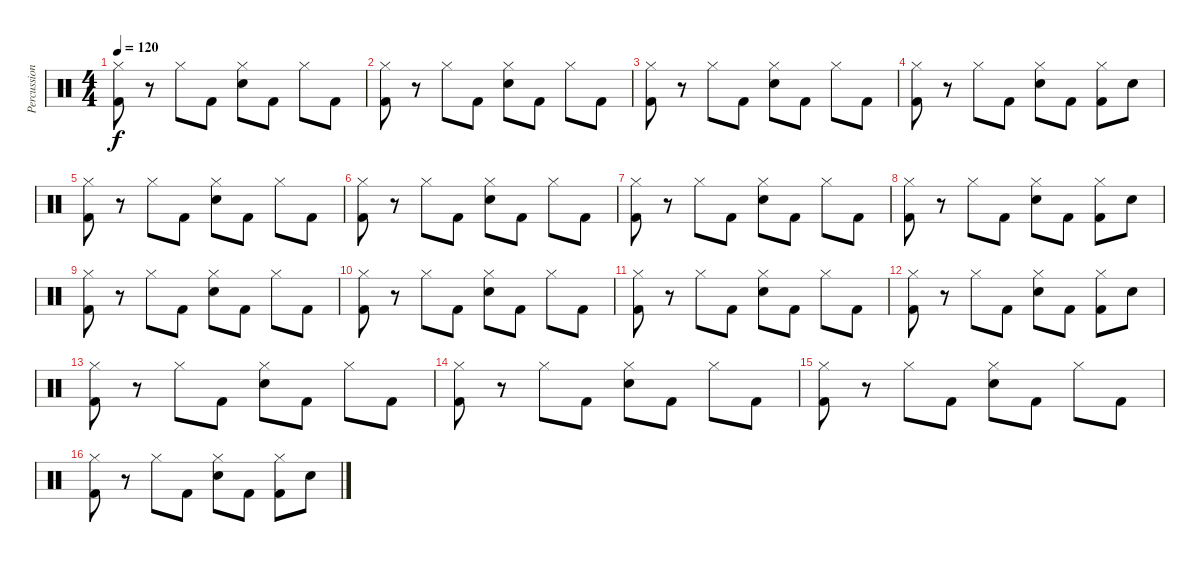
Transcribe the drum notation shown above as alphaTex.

\track ("Percussions" "Percussion") {instrument percussion}
\staff {score}
\articulation defaults
\ts (4 4)
\tempo 120
\clef neutral
\ks c
("Hi-Hat (closed)" "Kick (hit) 2").8{dy f} r.8 "Hi-Hat (closed)".8 "Kick (hit) 2".8 ("Hi-Hat (closed)" "Snare (hit) 2").8 "Kick (hit) 2".8 "Hi-Hat (closed)".8 "Kick (hit) 2".8 |
("Hi-Hat (closed)" "Kick (hit) 2").8 r.8 "Hi-Hat (closed)".8 "Kick (hit) 2".8 ("Hi-Hat (closed)" "Snare (hit) 2").8 "Kick (hit) 2".8 "Hi-Hat (closed)".8 "Kick (hit) 2".8 |
("Hi-Hat (closed)" "Kick (hit) 2").8 r.8 "Hi-Hat (closed)".8 "Kick (hit) 2".8 ("Hi-Hat (closed)" "Snare (hit) 2").8 "Kick (hit) 2".8 "Hi-Hat (closed)".8 "Kick (hit) 2".8 |
("Hi-Hat (closed)" "Kick (hit) 2").8 r.8 "Hi-Hat (closed)".8 "Kick (hit) 2".8 ("Hi-Hat (closed)" "Snare (hit) 2").8 "Kick (hit) 2".8 ("Hi-Hat (closed)" "Kick (hit) 2").8 "Snare (hit) 2".8 |
("Hi-Hat (closed)" "Kick (hit) 2").8 r.8 "Hi-Hat (closed)".8 "Kick (hit) 2".8 ("Hi-Hat (closed)" "Snare (hit) 2").8 "Kick (hit) 2".8 "Hi-Hat (closed)".8 "Kick (hit) 2".8 |
("Hi-Hat (closed)" "Kick (hit) 2").8 r.8 "Hi-Hat (closed)".8 "Kick (hit) 2".8 ("Hi-Hat (closed)" "Snare (hit) 2").8 "Kick (hit) 2".8 "Hi-Hat (closed)".8 "Kick (hit) 2".8 |
("Hi-Hat (closed)" "Kick (hit) 2").8 r.8 "Hi-Hat (closed)".8 "Kick (hit) 2".8 ("Hi-Hat (closed)" "Snare (hit) 2").8 "Kick (hit) 2".8 "Hi-Hat (closed)".8 "Kick (hit) 2".8 |
("Hi-Hat (closed)" "Kick (hit) 2").8 r.8 "Hi-Hat (closed)".8 "Kick (hit) 2".8 ("Hi-Hat (closed)" "Snare (hit) 2").8 "Kick (hit) 2".8 ("Hi-Hat (closed)" "Kick (hit) 2").8 "Snare (hit) 2".8 |
("Hi-Hat (closed)" "Kick (hit) 2").8 r.8 "Hi-Hat (closed)".8 "Kick (hit) 2".8 ("Hi-Hat (closed)" "Snare (hit) 2").8 "Kick (hit) 2".8 "Hi-Hat (closed)".8 "Kick (hit) 2".8 |
("Hi-Hat (closed)" "Kick (hit) 2").8 r.8 "Hi-Hat (closed)".8 "Kick (hit) 2".8 ("Hi-Hat (closed)" "Snare (hit) 2").8 "Kick (hit) 2".8 "Hi-Hat (closed)".8 "Kick (hit) 2".8 |
("Hi-Hat (closed)" "Kick (hit) 2").8 r.8 "Hi-Hat (closed)".8 "Kick (hit) 2".8 ("Hi-Hat (closed)" "Snare (hit) 2").8 "Kick (hit) 2".8 "Hi-Hat (closed)".8 "Kick (hit) 2".8 |
("Hi-Hat (closed)" "Kick (hit) 2").8 r.8 "Hi-Hat (closed)".8 "Kick (hit) 2".8 ("Hi-Hat (closed)" "Snare (hit) 2").8 "Kick (hit) 2".8 ("Hi-Hat (closed)" "Kick (hit) 2").8 "Snare (hit) 2".8 |
("Hi-Hat (closed)" "Kick (hit) 2").8 r.8 "Hi-Hat (closed)".8 "Kick (hit) 2".8 ("Hi-Hat (closed)" "Snare (hit) 2").8 "Kick (hit) 2".8 "Hi-Hat (closed)".8 "Kick (hit) 2".8 |
("Hi-Hat (closed)" "Kick (hit) 2").8 r.8 "Hi-Hat (closed)".8 "Kick (hit) 2".8 ("Hi-Hat (closed)" "Snare (hit) 2").8 "Kick (hit) 2".8 "Hi-Hat (closed)".8 "Kick (hit) 2".8 |
("Hi-Hat (closed)" "Kick (hit) 2").8 r.8 "Hi-Hat (closed)".8 "Kick (hit) 2".8 ("Hi-Hat (closed)" "Snare (hit) 2").8 "Kick (hit) 2".8 "Hi-Hat (closed)".8 "Kick (hit) 2".8 |
("Hi-Hat (closed)" "Kick (hit) 2").8 r.8 "Hi-Hat (closed)".8 "Kick (hit) 2".8 ("Hi-Hat (closed)" "Snare (hit) 2").8 "Kick (hit) 2".8 ("Hi-Hat (closed)" "Kick (hit) 2").8 "Snare (hit) 2".8
